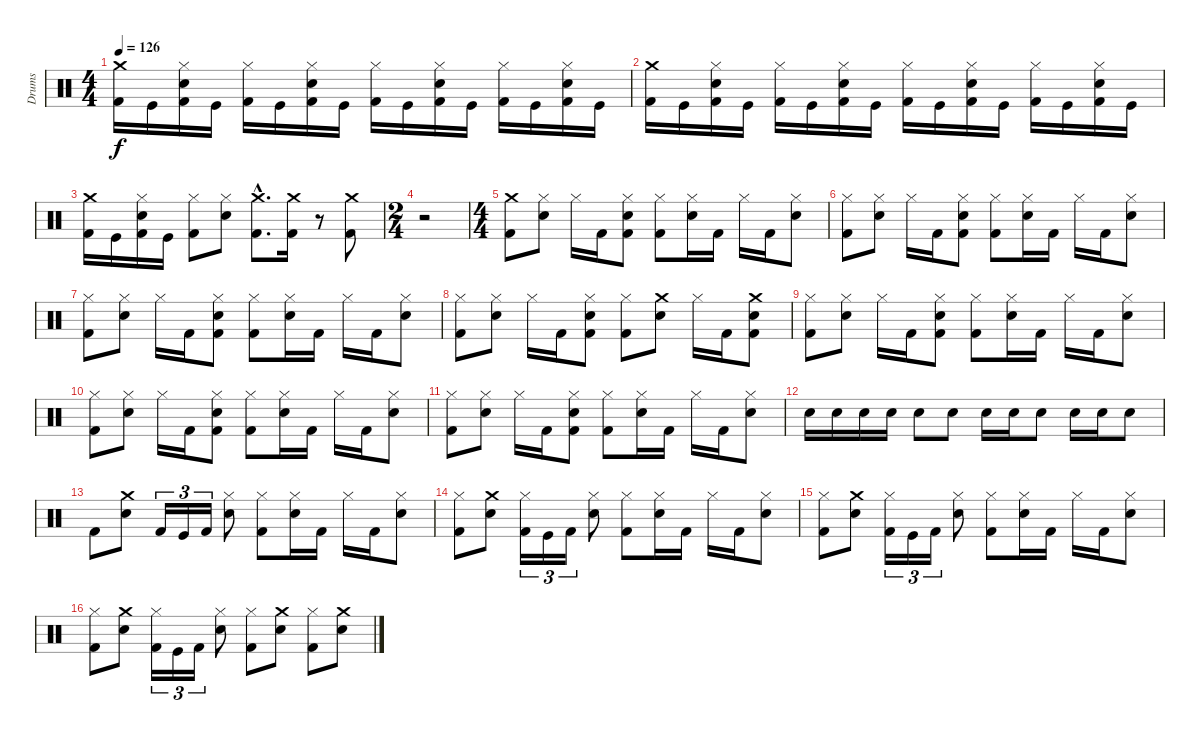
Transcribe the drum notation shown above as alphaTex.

\track ("Drums" "Drums") {instrument percussion}
\staff {score}
\articulation defaults
\ts (4 4)
\tempo 126
\clef neutral
\ks c
("Crash medium (hit)" "Kick (hit) 2").16{dy f} "Kick (hit)".16 ("Snare (hit) 2" "Hi-Hat (closed)" "Kick (hit) 2").16 "Kick (hit)".16 ("Hi-Hat (closed)" "Kick (hit) 2").16 "Kick (hit)".16 ("Snare (hit) 2" "Hi-Hat (closed)" "Kick (hit) 2").16 "Kick (hit)".16 ("Hi-Hat (closed)" "Kick (hit) 2").16 "Kick (hit)".16 ("Snare (hit) 2" "Hi-Hat (closed)" "Kick (hit) 2").16 "Kick (hit)".16 ("Hi-Hat (closed)" "Kick (hit) 2").16 "Kick (hit)".16 ("Snare (hit) 2" "Hi-Hat (closed)" "Kick (hit) 2").16 "Kick (hit)".16 |
("Crash medium (hit)" "Kick (hit) 2").16 "Kick (hit)".16 ("Snare (hit) 2" "Hi-Hat (closed)" "Kick (hit) 2").16 "Kick (hit)".16 ("Hi-Hat (closed)" "Kick (hit) 2").16 "Kick (hit)".16 ("Snare (hit) 2" "Hi-Hat (closed)" "Kick (hit) 2").16 "Kick (hit)".16 ("Hi-Hat (closed)" "Kick (hit) 2").16 "Kick (hit)".16 ("Snare (hit) 2" "Hi-Hat (closed)" "Kick (hit) 2").16 "Kick (hit)".16 ("Hi-Hat (closed)" "Kick (hit) 2").16 "Kick (hit)".16 ("Snare (hit) 2" "Hi-Hat (closed)" "Kick (hit) 2").16 "Kick (hit)".16 |
("Crash medium (hit)" "Kick (hit) 2").16 "Kick (hit)".16 ("Snare (hit) 2" "Hi-Hat (closed)" "Kick (hit) 2").16 "Kick (hit)".16 ("Hi-Hat (closed)" "Kick (hit) 2").8 ("Snare (hit) 2" "Hi-Hat (closed)").8 ("Crash medium (hit)"{hac} "Kick (hit) 2"{hac}).8{d} ("Crash medium (hit)" "Kick (hit) 2").16 r.8 ("Crash medium (hit)" "Kick (hit) 2").8 |
\ts (2 4)
r.2 |
\ts (4 4)
("Crash medium (hit)" "Kick (hit) 2").8 ("Snare (hit) 2" "Hi-Hat (closed)").8 "Hi-Hat (closed)".16 "Kick (hit) 2".16 ("Kick (hit) 2" "Snare (hit) 2" "Hi-Hat (closed)").8 ("Kick (hit) 2" "Hi-Hat (closed)").8 ("Snare (hit) 2" "Hi-Hat (closed)").16 "Kick (hit) 2".16 "Hi-Hat (closed)".16 "Kick (hit) 2".16 ("Snare (hit) 2" "Hi-Hat (closed)").8 |
("Hi-Hat (closed)" "Kick (hit) 2").8 ("Snare (hit) 2" "Hi-Hat (closed)").8 "Hi-Hat (closed)".16 "Kick (hit) 2".16 ("Snare (hit) 2" "Hi-Hat (closed)" "Kick (hit) 2").8 ("Hi-Hat (closed)" "Kick (hit) 2").8 ("Snare (hit) 2" "Hi-Hat (closed)").16 "Kick (hit) 2".16 "Hi-Hat (closed)".16 "Kick (hit) 2".16 ("Snare (hit) 2" "Hi-Hat (closed)").8 |
("Hi-Hat (closed)" "Kick (hit) 2").8 ("Snare (hit) 2" "Hi-Hat (closed)").8 "Hi-Hat (closed)".16 "Kick (hit) 2".16 ("Kick (hit) 2" "Snare (hit) 2" "Hi-Hat (closed)").8 ("Kick (hit) 2" "Hi-Hat (closed)").8 ("Snare (hit) 2" "Hi-Hat (closed)").16 "Kick (hit) 2".16 "Hi-Hat (closed)".16 "Kick (hit) 2".16 ("Snare (hit) 2" "Hi-Hat (closed)").8 |
("Hi-Hat (closed)" "Kick (hit) 2").8 ("Snare (hit) 2" "Hi-Hat (closed)").8 "Hi-Hat (closed)".16 "Kick (hit) 2".16 ("Kick (hit) 2" "Snare (hit) 2" "Hi-Hat (closed)").8 ("Hi-Hat (closed)" "Kick (hit) 2").8 ("Crash medium (hit)" "Snare (hit) 2").8 "Hi-Hat (closed)".16 "Kick (hit) 2".16 ("Kick (hit) 2" "Crash medium (hit)" "Snare (hit) 2").8 |
("Hi-Hat (closed)" "Kick (hit) 2").8 ("Snare (hit) 2" "Hi-Hat (closed)").8 "Hi-Hat (closed)".16 "Kick (hit) 2".16 ("Kick (hit) 2" "Snare (hit) 2" "Hi-Hat (closed)").8 ("Kick (hit) 2" "Hi-Hat (closed)").8 ("Snare (hit) 2" "Hi-Hat (closed)").16 "Kick (hit) 2".16 "Hi-Hat (closed)".16 "Kick (hit) 2".16 ("Snare (hit) 2" "Hi-Hat (closed)").8 |
("Hi-Hat (closed)" "Kick (hit) 2").8 ("Snare (hit) 2" "Hi-Hat (closed)").8 "Hi-Hat (closed)".16 "Kick (hit) 2".16 ("Snare (hit) 2" "Hi-Hat (closed)" "Kick (hit) 2").8 ("Hi-Hat (closed)" "Kick (hit) 2").8 ("Snare (hit) 2" "Hi-Hat (closed)").16 "Kick (hit) 2".16 "Hi-Hat (closed)".16 "Kick (hit) 2".16 ("Snare (hit) 2" "Hi-Hat (closed)").8 |
("Hi-Hat (closed)" "Kick (hit) 2").8 ("Snare (hit) 2" "Hi-Hat (closed)").8 "Hi-Hat (closed)".16 "Kick (hit) 2".16 ("Kick (hit) 2" "Snare (hit) 2" "Hi-Hat (closed)").8 ("Kick (hit) 2" "Hi-Hat (closed)").8 ("Snare (hit) 2" "Hi-Hat (closed)").16 "Kick (hit) 2".16 "Hi-Hat (closed)".16 "Kick (hit) 2".16 ("Snare (hit) 2" "Hi-Hat (closed)").8 |
"Snare (hit) 2".16 "Snare (hit) 2".16 "Snare (hit) 2".16 "Snare (hit) 2".16 "Snare (hit) 2".8 "Snare (hit) 2".8 "Snare (hit) 2".16 "Snare (hit) 2".16 "Snare (hit) 2".8 "Snare (hit) 2".16 "Snare (hit) 2".16 "Snare (hit) 2".8 |
"Kick (hit) 2".8 ("Snare (hit) 2" "Crash medium (hit)").8 "Kick (hit) 2".16{tu (3 2)} "Kick (hit)".16{tu (3 2)} "Kick (hit) 2".16{tu (3 2)} ("Hi-Hat (closed)" "Snare (hit) 2").8 ("Hi-Hat (closed)" "Kick (hit) 2").8 ("Snare (hit) 2" "Hi-Hat (closed)").16 "Kick (hit) 2".16 "Hi-Hat (closed)".16 "Kick (hit) 2".16 ("Snare (hit) 2" "Hi-Hat (closed)").8 |
("Hi-Hat (closed)" "Kick (hit) 2").8 ("Crash medium (hit)" "Snare (hit) 2").8 ("Hi-Hat (closed)" "Kick (hit) 2").16{tu (3 2)} "Kick (hit)".16{tu (3 2)} "Kick (hit) 2".16{tu (3 2)} ("Snare (hit) 2" "Hi-Hat (closed)").8 ("Hi-Hat (closed)" "Kick (hit) 2").8 ("Snare (hit) 2" "Hi-Hat (closed)").16 "Kick (hit) 2".16 "Hi-Hat (closed)".16 "Kick (hit) 2".16 ("Snare (hit) 2" "Hi-Hat (closed)").8 |
("Hi-Hat (closed)" "Kick (hit) 2").8 ("Crash medium (hit)" "Snare (hit) 2").8 ("Hi-Hat (closed)" "Kick (hit) 2").16{tu (3 2)} "Kick (hit)".16{tu (3 2)} "Kick (hit) 2".16{tu (3 2)} ("Snare (hit) 2" "Hi-Hat (closed)").8 ("Hi-Hat (closed)" "Kick (hit) 2").8 ("Snare (hit) 2" "Hi-Hat (closed)").16 "Kick (hit) 2".16 "Hi-Hat (closed)".16 "Kick (hit) 2".16 ("Snare (hit) 2" "Hi-Hat (closed)").8 |
("Kick (hit) 2" "Hi-Hat (closed)").8 ("Crash medium (hit)" "Snare (hit) 2").8 ("Hi-Hat (closed)" "Kick (hit) 2").16{tu (3 2)} "Kick (hit)".16{tu (3 2)} "Kick (hit) 2".16{tu (3 2)} ("Snare (hit) 2" "Hi-Hat (closed)").8 ("Kick (hit) 2" "Hi-Hat (closed)").8 ("Crash medium (hit)" "Snare (hit) 2").8 ("Kick (hit) 2" "Hi-Hat (closed)").8 ("Crash medium (hit)" "Snare (hit) 2").8
